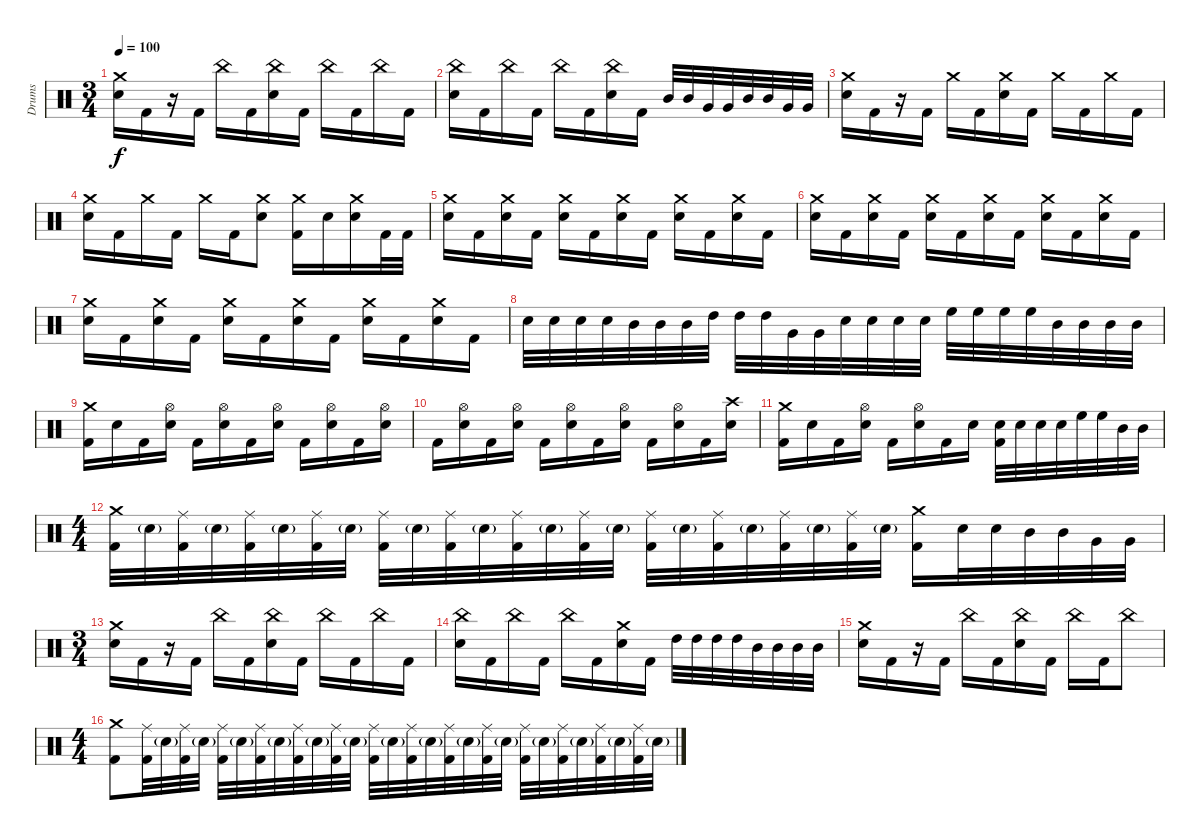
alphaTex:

\track ("Drums" "Drums") {instrument percussion}
\staff {score}
\articulation defaults
\ts (3 4)
\tempo 100
\clef neutral
\ks c
("Crash medium (hit)" "Snare (hit) 2").16{dy f} "Kick (hit) 2".16 r.16 "Kick (hit) 2".16 "China (hit)".16 "Kick (hit) 2".16 ("China (hit)" "Snare (hit) 2").16 "Kick (hit) 2".16 "China (hit)".16 "Kick (hit) 2".16 "China (hit)".16 "Kick (hit) 2".16 |
("China (hit)" "Snare (hit) 2").16 "Kick (hit) 2".16 "China (hit)".16 "Kick (hit) 2".16 "China (hit)".16 "Kick (hit) 2".16 ("China (hit)" "Snare (hit) 2").16 "Kick (hit) 2".16 "Mid Tom (hit)".32 "Mid Tom (hit)".32 "Very Low Tom (hit)".32 "Very Low Tom (hit)".32 "Mid Tom (hit)".32 "Mid Tom (hit)".32 "Very Low Tom (hit)".32 "Very Low Tom (hit)".32 |
("Crash medium (hit)" "Snare (hit) 2").16 "Kick (hit) 2".16 r.16 "Kick (hit) 2".16 "Crash medium (hit)".16 "Kick (hit) 2".16 ("Crash medium (hit)" "Snare (hit) 2").16 "Kick (hit) 2".16 "Crash medium (hit)".16 "Kick (hit) 2".16 "Crash medium (hit)".16 "Kick (hit) 2".16 |
("Crash medium (hit)" "Snare (hit) 2").16 "Kick (hit) 2".16 "Crash medium (hit)".16 "Kick (hit) 2".16 "Crash medium (hit)".16 "Kick (hit) 2".16 ("Crash medium (hit)" "Snare (hit) 2").8 ("Crash medium (hit)" "Kick (hit) 2").16 "Snare (hit) 2".16 ("Crash medium (hit)" "Snare (hit) 2").16 "Kick (hit) 2".32 "Kick (hit) 2".32 |
("Crash medium (hit)" "Snare (hit) 2").16 "Kick (hit) 2".16 ("Crash medium (hit)" "Snare (hit) 2").16 "Kick (hit) 2".16 ("Crash medium (hit)" "Snare (hit) 2").16 "Kick (hit) 2".16 ("Crash medium (hit)" "Snare (hit) 2").16 "Kick (hit) 2".16 ("Crash medium (hit)" "Snare (hit) 2").16 "Kick (hit) 2".16 ("Crash medium (hit)" "Snare (hit) 2").16 "Kick (hit) 2".16 |
("Crash medium (hit)" "Snare (hit) 2").16 "Kick (hit) 2".16 ("Crash medium (hit)" "Snare (hit) 2").16 "Kick (hit) 2".16 ("Crash medium (hit)" "Snare (hit) 2").16 "Kick (hit) 2".16 ("Crash medium (hit)" "Snare (hit) 2").16 "Kick (hit) 2".16 ("Crash medium (hit)" "Snare (hit) 2").16 "Kick (hit) 2".16 ("Crash medium (hit)" "Snare (hit) 2").16 "Kick (hit) 2".16 |
("Crash medium (hit)" "Snare (hit) 2").16 "Kick (hit) 2".16 ("Crash medium (hit)" "Snare (hit) 2").16 "Kick (hit) 2".16 ("Crash medium (hit)" "Snare (hit) 2").16 "Kick (hit) 2".16 ("Crash medium (hit)" "Snare (hit) 2").16 "Kick (hit) 2".16 ("Crash medium (hit)" "Snare (hit) 2").16 "Kick (hit) 2".16 ("Crash medium (hit)" "Snare (hit) 2").16 "Kick (hit) 2".16 |
"Snare (hit) 2".32 "Snare (hit) 2".32 "Snare (hit) 2".32 "Snare (hit) 2".32 "Mid Tom (hit)".32 "Mid Tom (hit)".32 "Mid Tom (hit)".32 "High Tom (hit)".32 "High Tom (hit)".32 "High Tom (hit)".32 "Very Low Tom (hit)".32 "Very Low Tom (hit)".32 "Snare (hit) 2".32 "Snare (hit) 2".32 "Snare (hit) 2".32 "Snare (hit) 2".32 "High Floor Tom (hit)".32 "High Floor Tom (hit)".32 "High Floor Tom (hit)".32 "High Floor Tom (hit)".32 "Mid Tom (hit)".32 "Mid Tom (hit)".32 "Mid Tom (hit)".32 "Mid Tom (hit)".32 |
("Crash medium (hit)" "Kick (hit) 2").16 "Snare (hit) 2".16 "Kick (hit) 2".16 ("Hi-Hat (open)" "Snare (hit) 2").16 "Kick (hit) 2".16 ("Hi-Hat (open)" "Snare (hit) 2").16 "Kick (hit) 2".16 ("Hi-Hat (open)" "Snare (hit) 2").16 "Kick (hit) 2".16 ("Hi-Hat (open)" "Snare (hit) 2").16 "Kick (hit) 2".16 ("Hi-Hat (open)" "Snare (hit) 2").16 |
"Kick (hit) 2".16 ("Hi-Hat (open)" "Snare (hit) 2").16 "Kick (hit) 2".16 ("Hi-Hat (open)" "Snare (hit) 2").16 "Kick (hit) 2".16 ("Hi-Hat (open)" "Snare (hit) 2").16 "Kick (hit) 2".16 ("Hi-Hat (open)" "Snare (hit) 2").16 "Kick (hit) 2".16 ("Hi-Hat (open)" "Snare (hit) 2").16 "Kick (hit) 2".16 ("Crash high (hit)" "Snare (hit) 2").16 |
("Crash medium (hit)" "Kick (hit) 2").16 "Snare (hit) 2".16 "Kick (hit) 2".16 ("Hi-Hat (open)" "Snare (hit) 2").16 "Kick (hit) 2".16 ("Hi-Hat (open)" "Snare (hit) 2").16 "Kick (hit) 2".16 "Snare (hit) 2".16 ("Snare (hit) 2" "Kick (hit) 2").32 "Snare (hit) 2".32 "Snare (hit) 2".32 "Snare (hit) 2".32 "High Floor Tom (hit)".32 "High Floor Tom (hit)".32 "Mid Tom (hit)".32 "Mid Tom (hit)".32 |
\ts (4 4)
("Crash medium (hit)" "Kick (hit) 2").32 "Snare (hit) 2"{g}.32 ("Ride (middle)" "Kick (hit) 2").32 "Snare (hit) 2"{g}.32 ("Ride (middle)" "Kick (hit) 2").32 "Snare (hit) 2"{g}.32 ("Ride (middle)" "Kick (hit) 2").32 "Snare (hit) 2"{g}.32 ("Ride (middle)" "Kick (hit) 2").32 "Snare (hit) 2"{g}.32 ("Ride (middle)" "Kick (hit) 2").32 "Snare (hit) 2"{g}.32 ("Ride (middle)" "Kick (hit) 2").32 "Snare (hit) 2"{g}.32 ("Ride (middle)" "Kick (hit) 2").32 "Snare (hit) 2"{g}.32 ("Ride (middle)" "Kick (hit) 2").32 "Snare (hit) 2"{g}.32 ("Ride (middle)" "Kick (hit) 2").32 "Snare (hit) 2"{g}.32 ("Ride (middle)" "Kick (hit) 2").32 "Snare (hit) 2"{g}.32 ("Ride (middle)" "Kick (hit) 2").32 "Snare (hit) 2"{g}.32 ("Crash medium (hit)" "Kick (hit) 2").16 "Snare (hit) 2".32 "Snare (hit) 2".32 "Mid Tom (hit)".32 "Mid Tom (hit)".32 "Very Low Tom (hit)".32 "Very Low Tom (hit)".32 |
\ts (3 4)
("Crash medium (hit)" "Snare (hit) 2").16 "Kick (hit) 2".16 r.16 "Kick (hit) 2".16 "China (hit)".16 "Kick (hit) 2".16 ("China (hit)" "Snare (hit) 2").16 "Kick (hit) 2".16 "China (hit)".16 "Kick (hit) 2".16 "China (hit)".16 "Kick (hit) 2".16 |
("China (hit)" "Snare (hit) 2").16 "Kick (hit) 2".16 "China (hit)".16 "Kick (hit) 2".16 "China (hit)".16 "Kick (hit) 2".16 ("Crash medium (hit)" "Snare (hit) 2").16 "Kick (hit) 2".16 "High Tom (hit)".32 "High Tom (hit)".32 "High Tom (hit)".32 "High Tom (hit)".32 "Mid Tom (hit)".32 "Mid Tom (hit)".32 "Mid Tom (hit)".32 "Mid Tom (hit)".32 |
("Crash medium (hit)" "Snare (hit) 2").16 "Kick (hit) 2".16 r.16 "Kick (hit) 2".16 "China (hit)".16 "Kick (hit) 2".16 ("China (hit)" "Snare (hit) 2").16 "Kick (hit) 2".16 "China (hit)".16 "Kick (hit) 2".16 "China (hit)".8 |
\ts (4 4)
("Crash medium (hit)" "Kick (hit) 2").8 ("Ride (middle)" "Kick (hit) 2").32 "Snare (hit) 2"{g}.32 ("Ride (middle)" "Kick (hit) 2").32 "Snare (hit) 2"{g}.32 ("Ride (middle)" "Kick (hit) 2").32 "Snare (hit) 2"{g}.32 ("Ride (middle)" "Kick (hit) 2").32 "Snare (hit) 2"{g}.32 ("Ride (middle)" "Kick (hit) 2").32 "Snare (hit) 2"{g}.32 ("Ride (middle)" "Kick (hit) 2").32 "Snare (hit) 2"{g}.32 ("Ride (middle)" "Kick (hit) 2").32 "Snare (hit) 2"{g}.32 ("Ride (middle)" "Kick (hit) 2").32 "Snare (hit) 2"{g}.32 ("Ride (middle)" "Kick (hit) 2").32 "Snare (hit) 2"{g}.32 ("Ride (middle)" "Kick (hit) 2").32 "Snare (hit) 2"{g}.32 ("Ride (middle)" "Kick (hit) 2").32 "Snare (hit) 2"{g}.32 ("Ride (middle)" "Kick (hit) 2").32 "Snare (hit) 2"{g}.32 ("Ride (middle)" "Kick (hit) 2").32 "Snare (hit) 2"{g}.32 ("Ride (middle)" "Kick (hit) 2").32 "Snare (hit) 2"{g}.32
